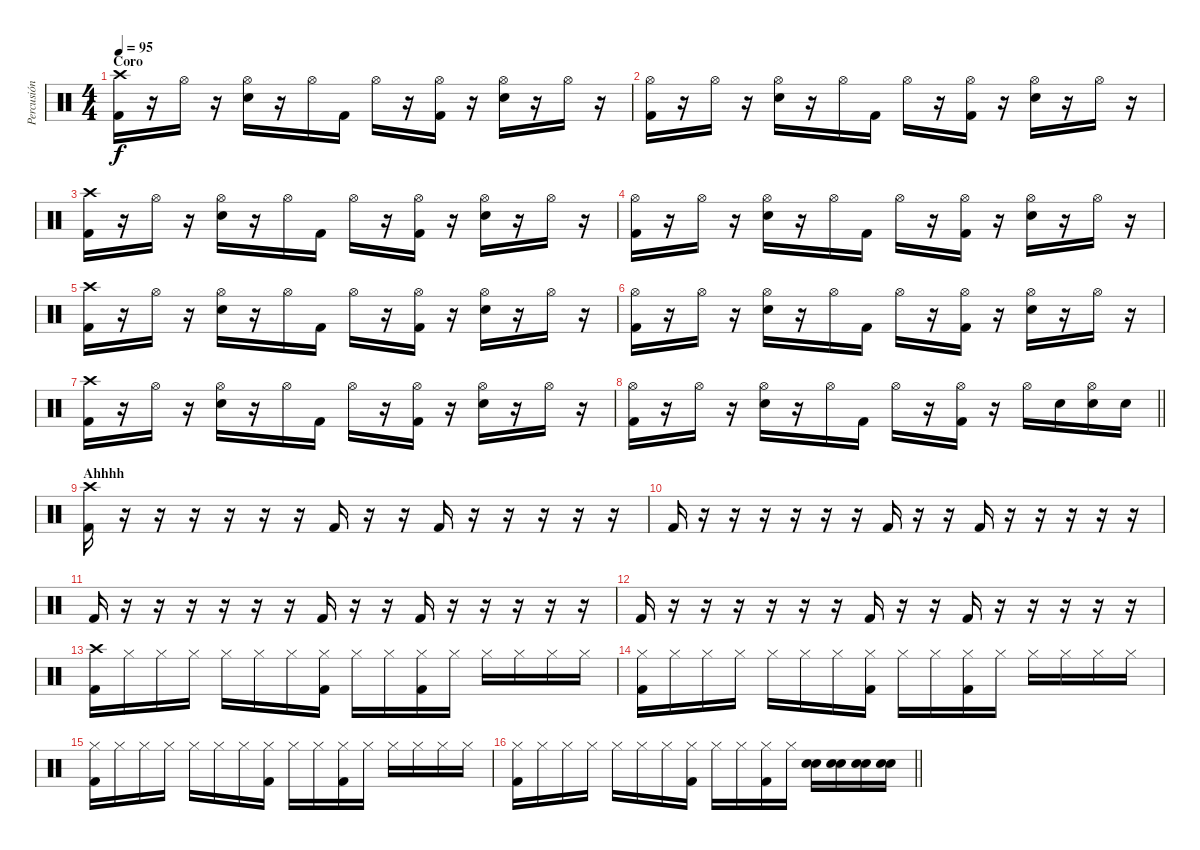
\track ("Percusión" "Percusión") {instrument percussion}
\staff {score}
\articulation defaults
\ts (4 4)
\section ("" "Coro")
\tempo 95
\clef neutral
\ks c
("Crash high (hit)" "Kick (hit) 2").16{dy f} r.16 "Hi-Hat (open)".16 r.16 ("Hi-Hat (open)" "Snare (hit) 2").16 r.16 "Hi-Hat (open)".16 "Kick (hit) 2".16 "Hi-Hat (open)".16 r.16 ("Hi-Hat (open)" "Kick (hit) 2").16 r.16 ("Hi-Hat (open)" "Snare (hit) 2").16 r.16 "Hi-Hat (open)".16 r.16 |
("Hi-Hat (open)" "Kick (hit) 2").16 r.16 "Hi-Hat (open)".16 r.16 ("Hi-Hat (open)" "Snare (hit) 2").16 r.16 "Hi-Hat (open)".16 "Kick (hit) 2".16 "Hi-Hat (open)".16 r.16 ("Hi-Hat (open)" "Kick (hit) 2").16 r.16 ("Hi-Hat (open)" "Snare (hit) 2").16 r.16 "Hi-Hat (open)".16 r.16 |
("Crash high (hit)" "Kick (hit) 2").16 r.16 "Hi-Hat (open)".16 r.16 ("Hi-Hat (open)" "Snare (hit) 2").16 r.16 "Hi-Hat (open)".16 "Kick (hit) 2".16 "Hi-Hat (open)".16 r.16 ("Hi-Hat (open)" "Kick (hit) 2").16 r.16 ("Hi-Hat (open)" "Snare (hit) 2").16 r.16 "Hi-Hat (open)".16 r.16 |
("Hi-Hat (open)" "Kick (hit) 2").16 r.16 "Hi-Hat (open)".16 r.16 ("Hi-Hat (open)" "Snare (hit) 2").16 r.16 "Hi-Hat (open)".16 "Kick (hit) 2".16 "Hi-Hat (open)".16 r.16 ("Hi-Hat (open)" "Kick (hit) 2").16 r.16 ("Hi-Hat (open)" "Snare (hit) 2").16 r.16 "Hi-Hat (open)".16 r.16 |
("Crash high (hit)" "Kick (hit) 2").16 r.16 "Hi-Hat (open)".16 r.16 ("Hi-Hat (open)" "Snare (hit) 2").16 r.16 "Hi-Hat (open)".16 "Kick (hit) 2".16 "Hi-Hat (open)".16 r.16 ("Hi-Hat (open)" "Kick (hit) 2").16 r.16 ("Hi-Hat (open)" "Snare (hit) 2").16 r.16 "Hi-Hat (open)".16 r.16 |
("Hi-Hat (open)" "Kick (hit) 2").16 r.16 "Hi-Hat (open)".16 r.16 ("Hi-Hat (open)" "Snare (hit) 2").16 r.16 "Hi-Hat (open)".16 "Kick (hit) 2".16 "Hi-Hat (open)".16 r.16 ("Hi-Hat (open)" "Kick (hit) 2").16 r.16 ("Hi-Hat (open)" "Snare (hit) 2").16 r.16 "Hi-Hat (open)".16 r.16 |
("Crash high (hit)" "Kick (hit) 2").16 r.16 "Hi-Hat (open)".16 r.16 ("Hi-Hat (open)" "Snare (hit) 2").16 r.16 "Hi-Hat (open)".16 "Kick (hit) 2".16 "Hi-Hat (open)".16 r.16 ("Hi-Hat (open)" "Kick (hit) 2").16 r.16 ("Hi-Hat (open)" "Snare (hit) 2").16 r.16 "Hi-Hat (open)".16 r.16 |
\barLineRight lightlight
("Hi-Hat (open)" "Kick (hit) 2").16 r.16 "Hi-Hat (open)".16 r.16 ("Hi-Hat (open)" "Snare (hit) 2").16 r.16 "Hi-Hat (open)".16 "Kick (hit) 2".16 "Hi-Hat (open)".16 r.16 ("Hi-Hat (open)" "Kick (hit) 2").16 r.16 "Hi-Hat (open)".16 "Snare (hit) 2".16 ("Hi-Hat (open)" "Snare (hit) 2").16 "Snare (hit) 2".16 |
\section ("" "Ahhhh ")
("Crash high (hit)" "Kick (hit) 2").16 r.16 r.16 r.16 r.16 r.16 r.16 "Kick (hit) 2".16 r.16 r.16 "Kick (hit) 2".16 r.16 r.16 r.16 r.16 r.16 |
"Kick (hit) 2".16 r.16 r.16 r.16 r.16 r.16 r.16 "Kick (hit) 2".16 r.16 r.16 "Kick (hit) 2".16 r.16 r.16 r.16 r.16 r.16 |
"Kick (hit) 2".16 r.16 r.16 r.16 r.16 r.16 r.16 "Kick (hit) 2".16 r.16 r.16 "Kick (hit) 2".16 r.16 r.16 r.16 r.16 r.16 |
"Kick (hit) 2".16 r.16 r.16 r.16 r.16 r.16 r.16 "Kick (hit) 2".16 r.16 r.16 "Kick (hit) 2".16 r.16 r.16 r.16 r.16 r.16 |
("Crash high (hit)" "Kick (hit) 2").16 "Hi-Hat (closed)".16 "Hi-Hat (closed)".16 "Hi-Hat (closed)".16 "Hi-Hat (closed)".16 "Hi-Hat (closed)".16 "Hi-Hat (closed)".16 ("Hi-Hat (closed)" "Kick (hit) 2").16 "Hi-Hat (closed)".16 "Hi-Hat (closed)".16 ("Hi-Hat (closed)" "Kick (hit) 2").16 "Hi-Hat (closed)".16 "Hi-Hat (closed)".16 "Hi-Hat (closed)".16 "Hi-Hat (closed)".16 "Hi-Hat (closed)".16 |
("Hi-Hat (closed)" "Kick (hit) 2").16 "Hi-Hat (closed)".16 "Hi-Hat (closed)".16 "Hi-Hat (closed)".16 "Hi-Hat (closed)".16 "Hi-Hat (closed)".16 "Hi-Hat (closed)".16 ("Hi-Hat (closed)" "Kick (hit) 2").16 "Hi-Hat (closed)".16 "Hi-Hat (closed)".16 ("Hi-Hat (closed)" "Kick (hit) 2").16 "Hi-Hat (closed)".16 "Hi-Hat (closed)".16 "Hi-Hat (closed)".16 "Hi-Hat (closed)".16 "Hi-Hat (closed)".16 |
("Hi-Hat (closed)" "Kick (hit) 2").16 "Hi-Hat (closed)".16 "Hi-Hat (closed)".16 "Hi-Hat (closed)".16 "Hi-Hat (closed)".16 "Hi-Hat (closed)".16 "Hi-Hat (closed)".16 ("Hi-Hat (closed)" "Kick (hit) 2").16 "Hi-Hat (closed)".16 "Hi-Hat (closed)".16 ("Hi-Hat (closed)" "Kick (hit) 2").16 "Hi-Hat (closed)".16 "Hi-Hat (closed)".16 "Hi-Hat (closed)".16 "Hi-Hat (closed)".16 "Hi-Hat (closed)".16 |
\barLineRight lightlight
("Hi-Hat (closed)" "Kick (hit) 2").16 "Hi-Hat (closed)".16 "Hi-Hat (closed)".16 "Hi-Hat (closed)".16 "Hi-Hat (closed)".16 "Hi-Hat (closed)".16 "Hi-Hat (closed)".16 ("Hi-Hat (closed)" "Kick (hit) 2").16 "Hi-Hat (closed)".16 "Hi-Hat (closed)".16 ("Hi-Hat (closed)" "Kick (hit) 2").16 "Hi-Hat (closed)".16 ("Snare (hit) 2" "Snare (hit) 2").16 ("Snare (hit) 2" "Snare (hit) 2").16 ("Snare (hit) 2" "Snare (hit) 2").16 ("Snare (hit) 2" "Snare (hit) 2").16
